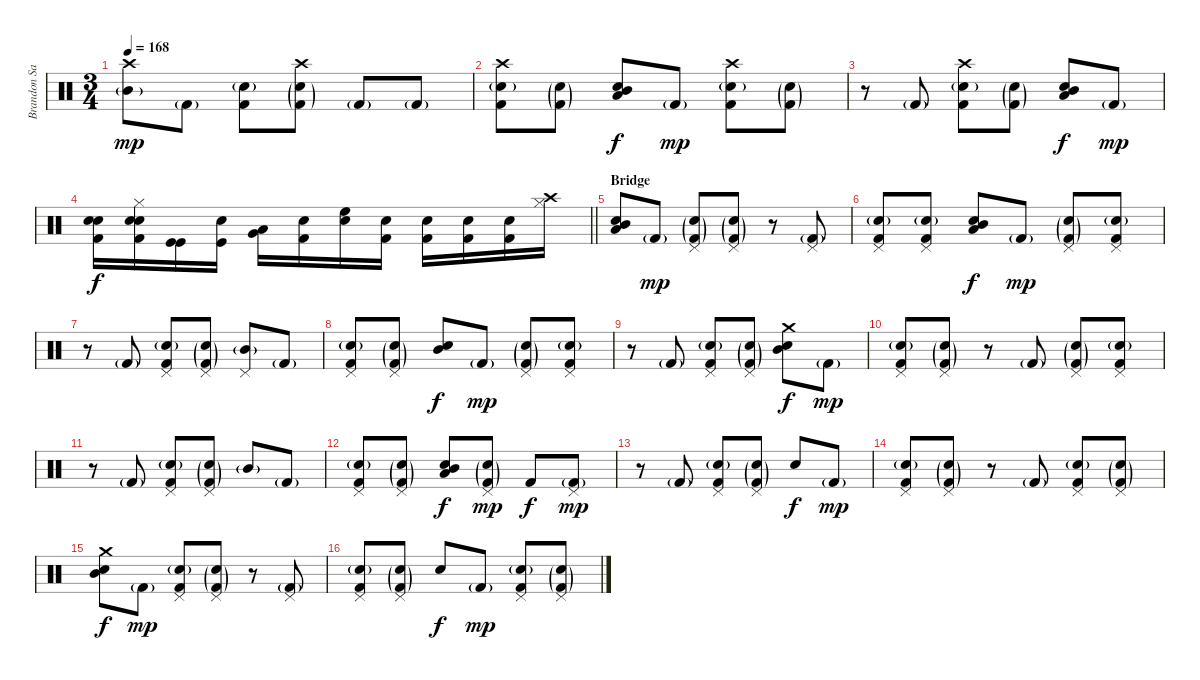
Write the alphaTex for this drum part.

\track ("Brandon Saller" "Brandon Sa") {instrument percussion}
\staff {score}
\articulation defaults
\ts (3 4)
\tempo 168
\clef neutral
\ks c
("Crash high (hit)" "Mid Tom (hit)"{g}).8{dy mp} "Kick (hit) 2"{g}.8 ("Snare (hit)"{g} "Kick (hit) 2").8 ("Crash high (hit)" "Snare (hit)"{g} "Kick (hit) 2"{g}).8 "Kick (hit) 2"{g}.8 "Kick (hit) 2"{g}.8 |
("Crash high (hit)" "Snare (hit)"{g} "Kick (hit) 2").8 ("Snare (hit)"{g} "Kick (hit) 2"{g}).8 ("Snare (hit) 2" "Low Tom (hit)" "Mid Tom (hit)").8{dy f} "Kick (hit) 2"{g}.8{dy mp} ("Crash high (hit)" "Snare (hit)"{g} "Kick (hit) 2").8 ("Snare (hit)"{g} "Kick (hit) 2"{g}).8 |
r.8 "Kick (hit) 2"{g}.8 ("Crash high (hit)" "Snare (hit)"{g} "Kick (hit) 2").8 ("Snare (hit)"{g} "Kick (hit) 2"{g}).8 ("Snare (hit) 2" "Low Tom (hit)" "Mid Tom (hit)").8{dy f} "Kick (hit) 2"{g}.8{dy mp} |
\barLineRight lightlight
("Snare (hit) 2" "Electric Snare (hit)" "Kick (hit) 2").16{dy f} ("Snare (hit) 2" "Hi-Hat (closed)" "Electric Snare (hit)" "Kick (hit) 2").16 ("Kick (hit)" "Kick (hit)").16 ("Snare (hit) 2" "Kick (hit)").16 ("Low Tom (hit)" "Very Low Tom (hit)").16 ("Electric Snare (hit)" "Kick (hit) 2").16 ("Electric Snare (hit)" "High Floor Tom (hit)").16 ("Snare (hit) 2" "Kick (hit) 2").16 ("Snare (hit) 2" "Kick (hit) 2").16 ("Snare (hit) 2" "Kick (hit) 2").16 ("Snare (hit) 2" "Kick (hit) 2").16 ("Hi-Hat (closed)" "Crash high (hit)").16 |
\section ("" "Bridge")
("Snare (hit) 2" "Low Tom (hit)" "Mid Tom (hit)").8 "Kick (hit) 2"{g}.8{dy mp} ("Pedal Hi-Hat (hit)" "Snare (hit)"{g} "Kick (hit) 2"{g}).8 ("Pedal Hi-Hat (hit)" "Snare (hit)"{g} "Kick (hit) 2"{g}).8 r.8 ("Pedal Hi-Hat (hit)" "Kick (hit) 2"{g}).8 |
("Pedal Hi-Hat (hit)" "Snare (hit)"{g} "Kick (hit) 2").8 ("Pedal Hi-Hat (hit)" "Snare (hit)"{g} "Kick (hit) 2").8 ("Snare (hit) 2" "Low Tom (hit)" "Mid Tom (hit)").8{dy f} "Kick (hit) 2"{g}.8{dy mp} ("Pedal Hi-Hat (hit)" "Snare (hit)"{g} "Kick (hit) 2"{g}).8 ("Pedal Hi-Hat (hit)" "Snare (hit)"{g} "Kick (hit) 2").8 |
r.8 "Kick (hit) 2"{g}.8 ("Pedal Hi-Hat (hit)" "Snare (hit)"{g} "Kick (hit) 2").8 ("Pedal Hi-Hat (hit)" "Snare (hit)"{g} "Kick (hit) 2"{g}).8 ("Pedal Hi-Hat (hit)" "Mid Tom (hit)"{g}).8 "Kick (hit) 2"{g}.8 |
("Pedal Hi-Hat (hit)" "Snare (hit)"{g} "Kick (hit) 2").8 ("Pedal Hi-Hat (hit)" "Snare (hit)"{g} "Kick (hit) 2"{g}).8 ("Snare (hit) 2" "Mid Tom (hit)").8{dy f} "Kick (hit) 2"{g}.8{dy mp} ("Pedal Hi-Hat (hit)" "Snare (hit)"{g} "Kick (hit) 2"{g}).8 ("Pedal Hi-Hat (hit)" "Snare (hit)"{g} "Kick (hit) 2").8 |
r.8 "Kick (hit) 2"{g}.8 ("Pedal Hi-Hat (hit)" "Snare (hit)"{g} "Kick (hit) 2").8 ("Pedal Hi-Hat (hit)" "Snare (hit)"{g} "Kick (hit) 2"{g}).8 ("Snare (hit) 2" "Crash medium (hit)" "Mid Tom (hit)").8{dy f} "Kick (hit) 2"{g}.8{dy mp} |
("Pedal Hi-Hat (hit)" "Snare (hit)"{g} "Kick (hit) 2").8 ("Pedal Hi-Hat (hit)" "Snare (hit)"{g} "Kick (hit) 2"{g}).8 r.8 "Kick (hit) 2"{g}.8 ("Pedal Hi-Hat (hit)" "Snare (hit)"{g} "Kick (hit) 2"{g}).8 ("Pedal Hi-Hat (hit)" "Snare (hit)"{g} "Kick (hit) 2").8 |
r.8 "Kick (hit) 2"{g}.8 ("Pedal Hi-Hat (hit)" "Snare (hit)"{g} "Kick (hit) 2").8 ("Pedal Hi-Hat (hit)" "Snare (hit)"{g} "Kick (hit) 2"{g}).8 "Mid Tom (hit)"{g}.8 "Kick (hit) 2"{g}.8 |
("Pedal Hi-Hat (hit)" "Snare (hit)"{g} "Kick (hit) 2").8 ("Pedal Hi-Hat (hit)" "Snare (hit)"{g} "Kick (hit) 2"{g}).8 ("Snare (hit) 2" "Low Tom (hit)" "Mid Tom (hit)").8{dy f} ("Pedal Hi-Hat (hit)" "Snare (hit)"{g} "Kick (hit) 2"{g}).8{dy mp} "Kick (hit) 2".8{dy f} ("Pedal Hi-Hat (hit)" "Kick (hit) 2"{g}).8{dy mp} |
r.8 "Kick (hit) 2"{g}.8 ("Pedal Hi-Hat (hit)" "Snare (hit)"{g} "Kick (hit) 2").8 ("Pedal Hi-Hat (hit)" "Snare (hit)"{g} "Kick (hit) 2"{g}).8 "Snare (hit) 2".8{dy f} "Kick (hit) 2"{g}.8{dy mp} |
("Pedal Hi-Hat (hit)" "Snare (hit)"{g} "Kick (hit) 2").8 ("Pedal Hi-Hat (hit)" "Snare (hit)"{g} "Kick (hit) 2"{g}).8 r.8 "Kick (hit) 2"{g}.8 ("Pedal Hi-Hat (hit)" "Snare (hit)"{g} "Kick (hit) 2").8 ("Pedal Hi-Hat (hit)" "Snare (hit)"{g} "Kick (hit) 2"{g}).8 |
("Snare (hit) 2" "Crash medium (hit)" "Mid Tom (hit)").8{dy f} "Kick (hit) 2"{g}.8{dy mp} ("Pedal Hi-Hat (hit)" "Snare (hit)"{g} "Kick (hit) 2").8 ("Pedal Hi-Hat (hit)" "Snare (hit)"{g} "Kick (hit) 2"{g}).8 r.8 ("Pedal Hi-Hat (hit)" "Kick (hit) 2"{g}).8 |
("Pedal Hi-Hat (hit)" "Snare (hit)"{g} "Kick (hit) 2").8 ("Pedal Hi-Hat (hit)" "Snare (hit)"{g} "Kick (hit) 2"{g}).8 "Snare (hit) 2".8{dy f} "Kick (hit) 2"{g}.8{dy mp} ("Pedal Hi-Hat (hit)" "Snare (hit)"{g} "Kick (hit) 2").8 ("Pedal Hi-Hat (hit)" "Snare (hit)"{g} "Kick (hit) 2"{g}).8
